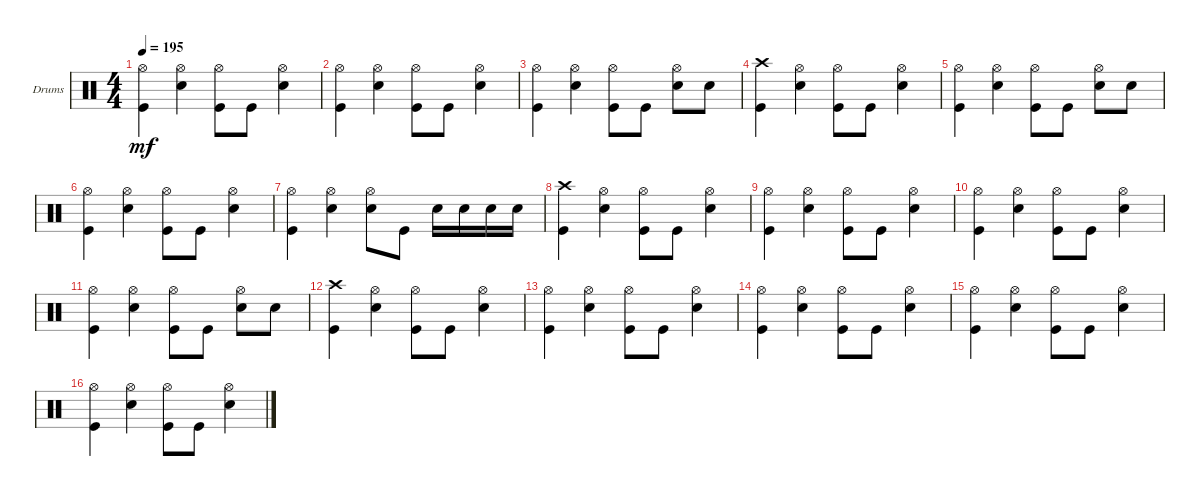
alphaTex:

\defaultSystemsLayout 4
\bracketExtendMode groupsimilarinstruments
\firstSystemTrackNameOrientation horizontal
\otherSystemsTrackNameOrientation horizontal
\track ("Drumkit" "Drums") {instrument percussion}
\staff {score}
\articulation defaults
\ts (4 4)
\tempo 195
\clef neutral
\ks c
("Kick (hit)" "Hi-Hat (open)").4{dy mf} ("Snare (hit) 2" "Hi-Hat (open)").4 ("Kick (hit)" "Hi-Hat (open)").8 "Kick (hit)".8 ("Snare (hit) 2" "Hi-Hat (open)").4 |
("Kick (hit)" "Hi-Hat (open)").4 ("Snare (hit) 2" "Hi-Hat (open)").4 ("Kick (hit)" "Hi-Hat (open)").8 "Kick (hit)".8 ("Snare (hit) 2" "Hi-Hat (open)").4 |
("Kick (hit)" "Hi-Hat (open)").4 ("Snare (hit) 2" "Hi-Hat (open)").4 ("Kick (hit)" "Hi-Hat (open)").8 "Kick (hit)".8 ("Snare (hit) 2" "Hi-Hat (open)").8 "Snare (hit) 2".8 |
("Kick (hit)" "Crash high (hit)").4 ("Snare (hit) 2" "Hi-Hat (open)").4 ("Kick (hit)" "Hi-Hat (open)").8 "Kick (hit)".8 ("Snare (hit) 2" "Hi-Hat (open)").4 |
("Kick (hit)" "Hi-Hat (open)").4 ("Snare (hit) 2" "Hi-Hat (open)").4 ("Kick (hit)" "Hi-Hat (open)").8 "Kick (hit)".8 ("Snare (hit) 2" "Hi-Hat (open)").8 "Snare (hit) 2".8 |
("Kick (hit)" "Hi-Hat (open)").4 ("Snare (hit) 2" "Hi-Hat (open)").4 ("Kick (hit)" "Hi-Hat (open)").8 "Kick (hit)".8 ("Snare (hit) 2" "Hi-Hat (open)").4 |
("Kick (hit)" "Hi-Hat (open)").4 ("Snare (hit) 2" "Hi-Hat (open)").4 ("Hi-Hat (open)" "Snare (hit) 2").8 "Kick (hit)".8 "Snare (hit) 2".16 "Snare (hit) 2".16 "Snare (hit) 2".16 "Snare (hit) 2".16 |
("Kick (hit)" "Crash high (hit)").4 ("Snare (hit) 2" "Hi-Hat (open)").4 ("Kick (hit)" "Hi-Hat (open)").8 "Kick (hit)".8 ("Snare (hit) 2" "Hi-Hat (open)").4 |
("Kick (hit)" "Hi-Hat (open)").4 ("Snare (hit) 2" "Hi-Hat (open)").4 ("Kick (hit)" "Hi-Hat (open)").8 "Kick (hit)".8 ("Snare (hit) 2" "Hi-Hat (open)").4 |
("Kick (hit)" "Hi-Hat (open)").4 ("Snare (hit) 2" "Hi-Hat (open)").4 ("Kick (hit)" "Hi-Hat (open)").8 "Kick (hit)".8 ("Snare (hit) 2" "Hi-Hat (open)").4 |
("Kick (hit)" "Hi-Hat (open)").4 ("Snare (hit) 2" "Hi-Hat (open)").4 ("Kick (hit)" "Hi-Hat (open)").8 "Kick (hit)".8 ("Snare (hit) 2" "Hi-Hat (open)").8 "Snare (hit) 2".8 |
("Kick (hit)" "Crash high (hit)").4 ("Snare (hit) 2" "Hi-Hat (open)").4 ("Kick (hit)" "Hi-Hat (open)").8 "Kick (hit)".8 ("Snare (hit) 2" "Hi-Hat (open)").4 |
("Kick (hit)" "Hi-Hat (open)").4 ("Snare (hit) 2" "Hi-Hat (open)").4 ("Kick (hit)" "Hi-Hat (open)").8 "Kick (hit)".8 ("Snare (hit) 2" "Hi-Hat (open)").4 |
("Kick (hit)" "Hi-Hat (open)").4 ("Snare (hit) 2" "Hi-Hat (open)").4 ("Kick (hit)" "Hi-Hat (open)").8 "Kick (hit)".8 ("Snare (hit) 2" "Hi-Hat (open)").4 |
("Kick (hit)" "Hi-Hat (open)").4 ("Snare (hit) 2" "Hi-Hat (open)").4 ("Kick (hit)" "Hi-Hat (open)").8 "Kick (hit)".8 ("Snare (hit) 2" "Hi-Hat (open)").4 |
("Kick (hit)" "Hi-Hat (open)").4 ("Snare (hit) 2" "Hi-Hat (open)").4 ("Kick (hit)" "Hi-Hat (open)").8 "Kick (hit)".8 ("Snare (hit) 2" "Hi-Hat (open)").4
